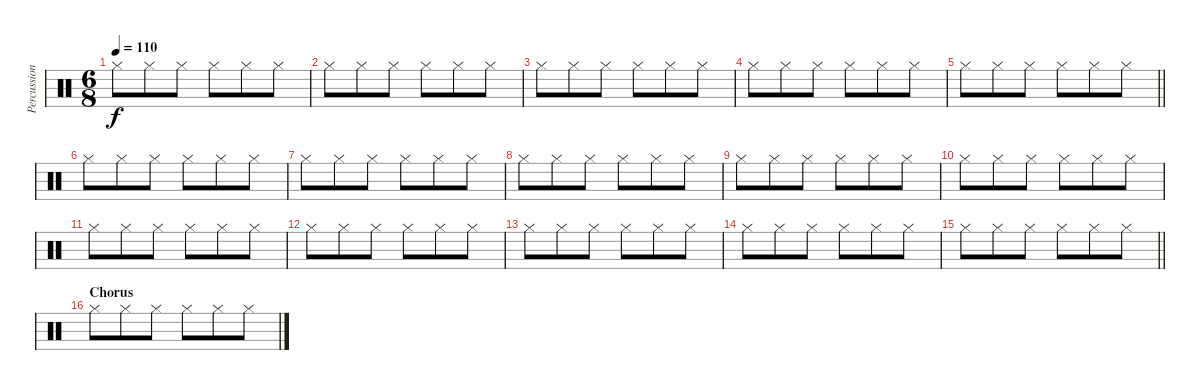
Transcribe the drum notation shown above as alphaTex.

\track ("Percussion" "Percussion") {instrument percussion}
\staff {score}
\articulation defaults
\ts (6 8)
\tempo 110
\clef neutral
\ks c "Hi-Hat (closed)".8{dy f} "Hi-Hat (closed)".8 "Hi-Hat (closed)".8 "Hi-Hat (closed)".8 "Hi-Hat (closed)".8 "Hi-Hat (closed)".8
|
"Hi-Hat (closed)".8 "Hi-Hat (closed)".8 "Hi-Hat (closed)".8 "Hi-Hat (closed)".8 "Hi-Hat (closed)".8 "Hi-Hat (closed)".8 |
"Hi-Hat (closed)".8 "Hi-Hat (closed)".8 "Hi-Hat (closed)".8 "Hi-Hat (closed)".8 "Hi-Hat (closed)".8 "Hi-Hat (closed)".8 |
"Hi-Hat (closed)".8 "Hi-Hat (closed)".8 "Hi-Hat (closed)".8 "Hi-Hat (closed)".8 "Hi-Hat (closed)".8 "Hi-Hat (closed)".8 |
\barLineRight lightlight "Hi-Hat (closed)".8 "Hi-Hat (closed)".8 "Hi-Hat (closed)".8 "Hi-Hat (closed)".8 "Hi-Hat (closed)".8 "Hi-Hat (closed)".8
|
"Hi-Hat (closed)".8 "Hi-Hat (closed)".8 "Hi-Hat (closed)".8 "Hi-Hat (closed)".8 "Hi-Hat (closed)".8 "Hi-Hat (closed)".8 |
"Hi-Hat (closed)".8 "Hi-Hat (closed)".8 "Hi-Hat (closed)".8 "Hi-Hat (closed)".8 "Hi-Hat (closed)".8 "Hi-Hat (closed)".8 |
"Hi-Hat (closed)".8 "Hi-Hat (closed)".8 "Hi-Hat (closed)".8 "Hi-Hat (closed)".8 "Hi-Hat (closed)".8 "Hi-Hat (closed)".8 |
"Hi-Hat (closed)".8 "Hi-Hat (closed)".8 "Hi-Hat (closed)".8 "Hi-Hat (closed)".8 "Hi-Hat (closed)".8 "Hi-Hat (closed)".8 |
"Hi-Hat (closed)".8 "Hi-Hat (closed)".8 "Hi-Hat (closed)".8 "Hi-Hat (closed)".8 "Hi-Hat (closed)".8 "Hi-Hat (closed)".8 |
"Hi-Hat (closed)".8 "Hi-Hat (closed)".8 "Hi-Hat (closed)".8 "Hi-Hat (closed)".8 "Hi-Hat (closed)".8 "Hi-Hat (closed)".8 |
"Hi-Hat (closed)".8 "Hi-Hat (closed)".8 "Hi-Hat (closed)".8 "Hi-Hat (closed)".8 "Hi-Hat (closed)".8 "Hi-Hat (closed)".8 |
"Hi-Hat (closed)".8 "Hi-Hat (closed)".8 "Hi-Hat (closed)".8 "Hi-Hat (closed)".8 "Hi-Hat (closed)".8 "Hi-Hat (closed)".8 |
"Hi-Hat (closed)".8 "Hi-Hat (closed)".8 "Hi-Hat (closed)".8 "Hi-Hat (closed)".8 "Hi-Hat (closed)".8 "Hi-Hat (closed)".8 |
\barLineRight lightlight "Hi-Hat (closed)".8 "Hi-Hat (closed)".8 "Hi-Hat (closed)".8 "Hi-Hat (closed)".8 "Hi-Hat (closed)".8 "Hi-Hat (closed)".8
|
\section ("" "Chorus")
"Hi-Hat (closed)".8 "Hi-Hat (closed)".8 "Hi-Hat (closed)".8 "Hi-Hat (closed)".8 "Hi-Hat (closed)".8 "Hi-Hat (closed)".8
